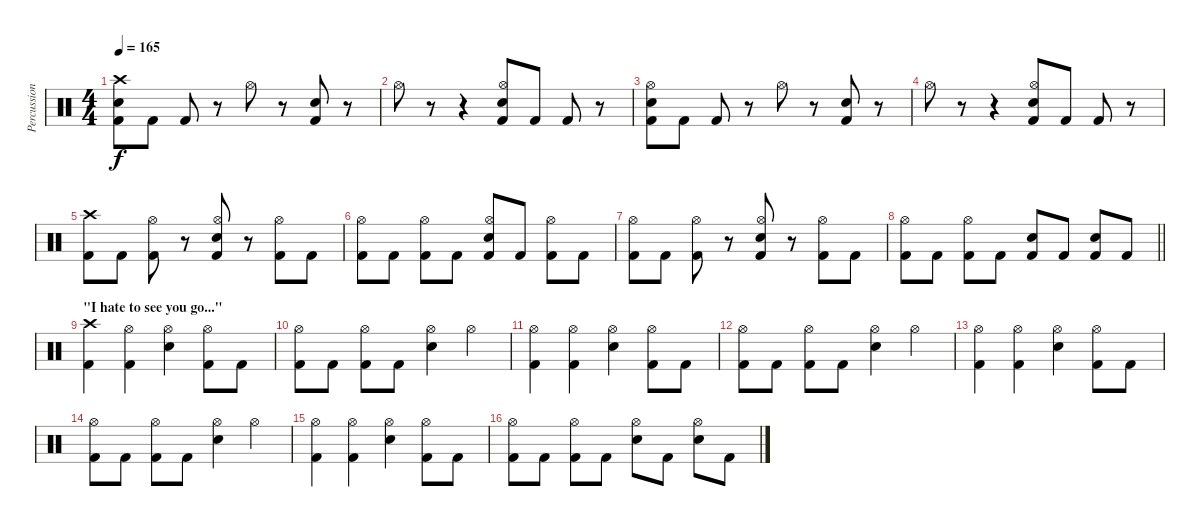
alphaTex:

\track ("Percussion" "Percussion") {instrument percussion}
\staff {score}
\articulation defaults
\ts (4 4)
\tempo 165
\clef neutral
\ks c
("Crash high (hit)" "Snare (hit) 2" "Kick (hit) 2").8{dy f} "Kick (hit) 2".8 "Kick (hit) 2".8 r.8 "Hi-Hat (open)".8 r.8 ("Snare (hit) 2" "Kick (hit) 2").8 r.8 |
"Hi-Hat (open)".8 r.8 r.4 ("Hi-Hat (open)" "Electric Snare (hit)" "Kick (hit) 2").8 "Kick (hit) 2".8 "Kick (hit) 2".8 r.8 |
("Hi-Hat (open)" "Snare (hit) 2" "Kick (hit) 2").8 "Kick (hit) 2".8 "Kick (hit) 2".8 r.8 "Hi-Hat (open)".8 r.8 ("Snare (hit) 2" "Kick (hit) 2").8 r.8 |
"Hi-Hat (open)".8 r.8 r.4 ("Hi-Hat (open)" "Electric Snare (hit)" "Kick (hit) 2").8 "Kick (hit) 2".8 "Kick (hit) 2".8 r.8 |
("Crash high (hit)" "Kick (hit) 2").8 "Kick (hit) 2".8 ("Hi-Hat (open)" "Kick (hit) 2").8 r.8 ("Hi-Hat (open)" "Electric Snare (hit)" "Kick (hit) 2").8 r.8 ("Hi-Hat (open)" "Kick (hit) 2").8 "Kick (hit) 2".8 |
("Hi-Hat (open)" "Kick (hit) 2").8 "Kick (hit) 2".8 ("Hi-Hat (open)" "Kick (hit) 2").8 "Kick (hit) 2".8 ("Hi-Hat (open)" "Electric Snare (hit)" "Kick (hit) 2").8 "Kick (hit) 2".8 ("Hi-Hat (open)" "Kick (hit) 2").8 "Kick (hit) 2".8 |
("Hi-Hat (open)" "Kick (hit) 2").8 "Kick (hit) 2".8 ("Hi-Hat (open)" "Kick (hit) 2").8 r.8 ("Hi-Hat (open)" "Electric Snare (hit)" "Kick (hit) 2").8 r.8 ("Hi-Hat (open)" "Kick (hit) 2").8 "Kick (hit) 2".8 |
\barLineRight lightlight
("Hi-Hat (open)" "Kick (hit) 2").8 "Kick (hit) 2".8 ("Hi-Hat (open)" "Kick (hit) 2").8 "Kick (hit) 2".8 ("Electric Snare (hit)" "Kick (hit) 2").8 "Kick (hit) 2".8 ("Electric Snare (hit)" "Kick (hit) 2").8 "Kick (hit) 2".8 |
\section ("" "\"I hate to see you go...\"")
("Crash high (hit)" "Kick (hit) 2").4 ("Hi-Hat (open)" "Kick (hit) 2").4 ("Hi-Hat (open)" "Electric Snare (hit)").4 ("Hi-Hat (open)" "Kick (hit) 2").8 "Kick (hit) 2".8 |
("Hi-Hat (open)" "Kick (hit) 2").8 "Kick (hit) 2".8 ("Hi-Hat (open)" "Kick (hit) 2").8 "Kick (hit) 2".8 ("Hi-Hat (open)" "Electric Snare (hit)").4 "Hi-Hat (open)".4 |
("Hi-Hat (open)" "Kick (hit) 2").4 ("Hi-Hat (open)" "Kick (hit) 2").4 ("Hi-Hat (open)" "Electric Snare (hit)").4 ("Hi-Hat (open)" "Kick (hit) 2").8 "Kick (hit) 2".8 |
("Hi-Hat (open)" "Kick (hit) 2").8 "Kick (hit) 2".8 ("Hi-Hat (open)" "Kick (hit) 2").8 "Kick (hit) 2".8 ("Hi-Hat (open)" "Electric Snare (hit)").4 "Hi-Hat (open)".4 |
("Hi-Hat (open)" "Kick (hit) 2").4 ("Hi-Hat (open)" "Kick (hit) 2").4 ("Hi-Hat (open)" "Electric Snare (hit)").4 ("Hi-Hat (open)" "Kick (hit) 2").8 "Kick (hit) 2".8 |
("Hi-Hat (open)" "Kick (hit) 2").8 "Kick (hit) 2".8 ("Hi-Hat (open)" "Kick (hit) 2").8 "Kick (hit) 2".8 ("Hi-Hat (open)" "Electric Snare (hit)").4 "Hi-Hat (open)".4 |
("Hi-Hat (open)" "Kick (hit) 2").4 ("Hi-Hat (open)" "Kick (hit) 2").4 ("Hi-Hat (open)" "Electric Snare (hit)").4 ("Hi-Hat (open)" "Kick (hit) 2").8 "Kick (hit) 2".8 |
("Hi-Hat (open)" "Kick (hit) 2").8 "Kick (hit) 2".8 ("Hi-Hat (open)" "Kick (hit) 2").8 "Kick (hit) 2".8 ("Hi-Hat (open)" "Electric Snare (hit)").8 "Kick (hit) 2".8 ("Hi-Hat (open)" "Electric Snare (hit)").8 "Kick (hit) 2".8
